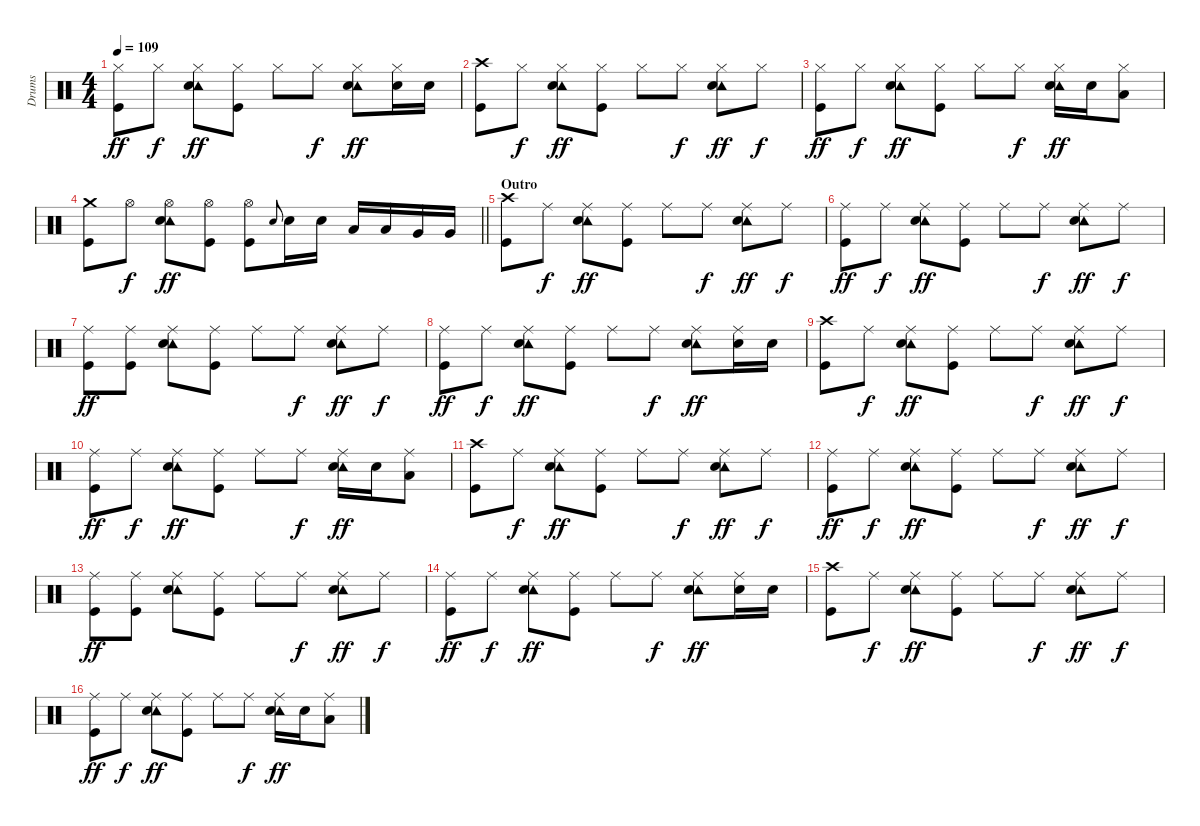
\track ("Drums" "Drums") {instrument percussion}
\staff {score}
\articulation defaults
\ts (4 4)
\tempo 109
\clef neutral
\ks c
("Hi-Hat (closed)" "Kick (hit)").8{dy ff} "Hi-Hat (closed)".8{dy f} ("Hi-Hat (closed)" "Tambourine (hit)" "Electric Snare (hit)").8{dy ff} ("Hi-Hat (closed)" "Kick (hit)").8 "Hi-Hat (closed)".8 "Hi-Hat (closed)".8{dy f} ("Hi-Hat (closed)" "Tambourine (hit)" "Electric Snare (hit)").8{dy ff} ("Hi-Hat (closed)" "Electric Snare (hit)").16 "Electric Snare (hit)".16 |
("Crash high (hit)" "Kick (hit)").8 "Hi-Hat (closed)".8{dy f} ("Hi-Hat (closed)" "Tambourine (hit)" "Electric Snare (hit)").8{dy ff} ("Hi-Hat (closed)" "Kick (hit)").8 "Hi-Hat (closed)".8 "Hi-Hat (closed)".8{dy f} ("Hi-Hat (closed)" "Tambourine (hit)" "Electric Snare (hit)").8{dy ff} "Hi-Hat (closed)".8{dy f} |
("Hi-Hat (closed)" "Kick (hit)").8{dy ff} "Hi-Hat (closed)".8{dy f} ("Hi-Hat (closed)" "Tambourine (hit)" "Electric Snare (hit)").8{dy ff} ("Hi-Hat (closed)" "Kick (hit)").8 "Hi-Hat (closed)".8 "Hi-Hat (closed)".8{dy f} ("Hi-Hat (closed)" "Tambourine (hit)" "Electric Snare (hit)").16{dy ff} "Electric Snare (hit)".16 ("Hi-Hat (closed)" "Low Tom (hit)").8 |
\barLineRight lightlight
("Crash medium (hit)" "Kick (hit)").8 "Hi-Hat (open)".8{dy f} ("Hi-Hat (open)" "Tambourine (hit)" "Electric Snare (hit)").8{dy ff} ("Hi-Hat (open)" "Kick (hit)").8 ("Hi-Hat (open)" "Kick (hit)").8 "Electric Snare (hit)".8{gr onbeat} "Electric Snare (hit)".16 "Electric Snare (hit)".16 "Low Tom (hit)".16 "Low Tom (hit)".16 "Very Low Tom (hit)".16 "Very Low Tom (hit)".16 |
\section ("" "Outro")
("Crash high (hit)" "Kick (hit)").8 "Ride (middle)".8{dy f} ("Ride (middle)" "Tambourine (hit)" "Electric Snare (hit)").8{dy ff} ("Ride (middle)" "Kick (hit)").8 "Ride (middle)".8 "Ride (middle)".8{dy f} ("Ride (middle)" "Tambourine (hit)" "Electric Snare (hit)").8{dy ff} "Ride (middle)".8{dy f} |
("Ride (middle)" "Kick (hit)").8{dy ff} "Ride (middle)".8{dy f} ("Ride (middle)" "Tambourine (hit)" "Electric Snare (hit)").8{dy ff} ("Ride (middle)" "Kick (hit)").8 "Ride (middle)".8 "Ride (middle)".8{dy f} ("Ride (middle)" "Tambourine (hit)" "Electric Snare (hit)").8{dy ff} "Ride (middle)".8{dy f} |
("Ride (middle)" "Kick (hit)").8{dy ff} ("Ride (middle)" "Kick (hit)").8 ("Ride (middle)" "Tambourine (hit)" "Electric Snare (hit)").8 ("Ride (middle)" "Kick (hit)").8 "Ride (middle)".8 "Ride (middle)".8{dy f} ("Ride (middle)" "Tambourine (hit)" "Electric Snare (hit)").8{dy ff} "Ride (middle)".8{dy f} |
("Ride (middle)" "Kick (hit)").8{dy ff} "Ride (middle)".8{dy f} ("Ride (middle)" "Tambourine (hit)" "Electric Snare (hit)").8{dy ff} ("Ride (middle)" "Kick (hit)").8 "Ride (middle)".8 "Ride (middle)".8{dy f} ("Ride (middle)" "Tambourine (hit)" "Electric Snare (hit)").8{dy ff} ("Ride (middle)" "Electric Snare (hit)").16 "Electric Snare (hit)".16 |
("Crash high (hit)" "Kick (hit)").8 "Ride (middle)".8{dy f} ("Ride (middle)" "Tambourine (hit)" "Electric Snare (hit)").8{dy ff} ("Ride (middle)" "Kick (hit)").8 "Ride (middle)".8 "Ride (middle)".8{dy f} ("Ride (middle)" "Tambourine (hit)" "Electric Snare (hit)").8{dy ff} "Ride (middle)".8{dy f} |
("Ride (middle)" "Kick (hit)").8{dy ff} "Ride (middle)".8{dy f} ("Ride (middle)" "Tambourine (hit)" "Electric Snare (hit)").8{dy ff} ("Ride (middle)" "Kick (hit)").8 "Ride (middle)".8 "Ride (middle)".8{dy f} ("Ride (middle)" "Tambourine (hit)" "Electric Snare (hit)").16{dy ff} "Electric Snare (hit)".16 ("Ride (middle)" "Low Tom (hit)").8 |
("Crash high (hit)" "Kick (hit)").8 "Ride (middle)".8{dy f} ("Ride (middle)" "Tambourine (hit)" "Electric Snare (hit)").8{dy ff} ("Ride (middle)" "Kick (hit)").8 "Ride (middle)".8 "Ride (middle)".8{dy f} ("Ride (middle)" "Tambourine (hit)" "Electric Snare (hit)").8{dy ff} "Ride (middle)".8{dy f} |
("Ride (middle)" "Kick (hit)").8{dy ff} "Ride (middle)".8{dy f} ("Ride (middle)" "Tambourine (hit)" "Electric Snare (hit)").8{dy ff} ("Ride (middle)" "Kick (hit)").8 "Ride (middle)".8 "Ride (middle)".8{dy f} ("Ride (middle)" "Tambourine (hit)" "Electric Snare (hit)").8{dy ff} "Ride (middle)".8{dy f} |
("Ride (middle)" "Kick (hit)").8{dy ff} ("Ride (middle)" "Kick (hit)").8 ("Ride (middle)" "Tambourine (hit)" "Electric Snare (hit)").8 ("Ride (middle)" "Kick (hit)").8 "Ride (middle)".8 "Ride (middle)".8{dy f} ("Ride (middle)" "Tambourine (hit)" "Electric Snare (hit)").8{dy ff} "Ride (middle)".8{dy f} |
("Ride (middle)" "Kick (hit)").8{dy ff} "Ride (middle)".8{dy f} ("Ride (middle)" "Tambourine (hit)" "Electric Snare (hit)").8{dy ff} ("Ride (middle)" "Kick (hit)").8 "Ride (middle)".8 "Ride (middle)".8{dy f} ("Ride (middle)" "Tambourine (hit)" "Electric Snare (hit)").8{dy ff} ("Ride (middle)" "Electric Snare (hit)").16 "Electric Snare (hit)".16 |
("Crash high (hit)" "Kick (hit)").8 "Ride (middle)".8{dy f} ("Ride (middle)" "Tambourine (hit)" "Electric Snare (hit)").8{dy ff} ("Ride (middle)" "Kick (hit)").8 "Ride (middle)".8 "Ride (middle)".8{dy f} ("Ride (middle)" "Tambourine (hit)" "Electric Snare (hit)").8{dy ff} "Ride (middle)".8{dy f} |
("Ride (middle)" "Kick (hit)").8{dy ff} "Ride (middle)".8{dy f} ("Ride (middle)" "Tambourine (hit)" "Electric Snare (hit)").8{dy ff} ("Ride (middle)" "Kick (hit)").8 "Ride (middle)".8 "Ride (middle)".8{dy f} ("Ride (middle)" "Tambourine (hit)" "Electric Snare (hit)").16{dy ff} "Electric Snare (hit)".16 ("Ride (middle)" "Low Tom (hit)").8
